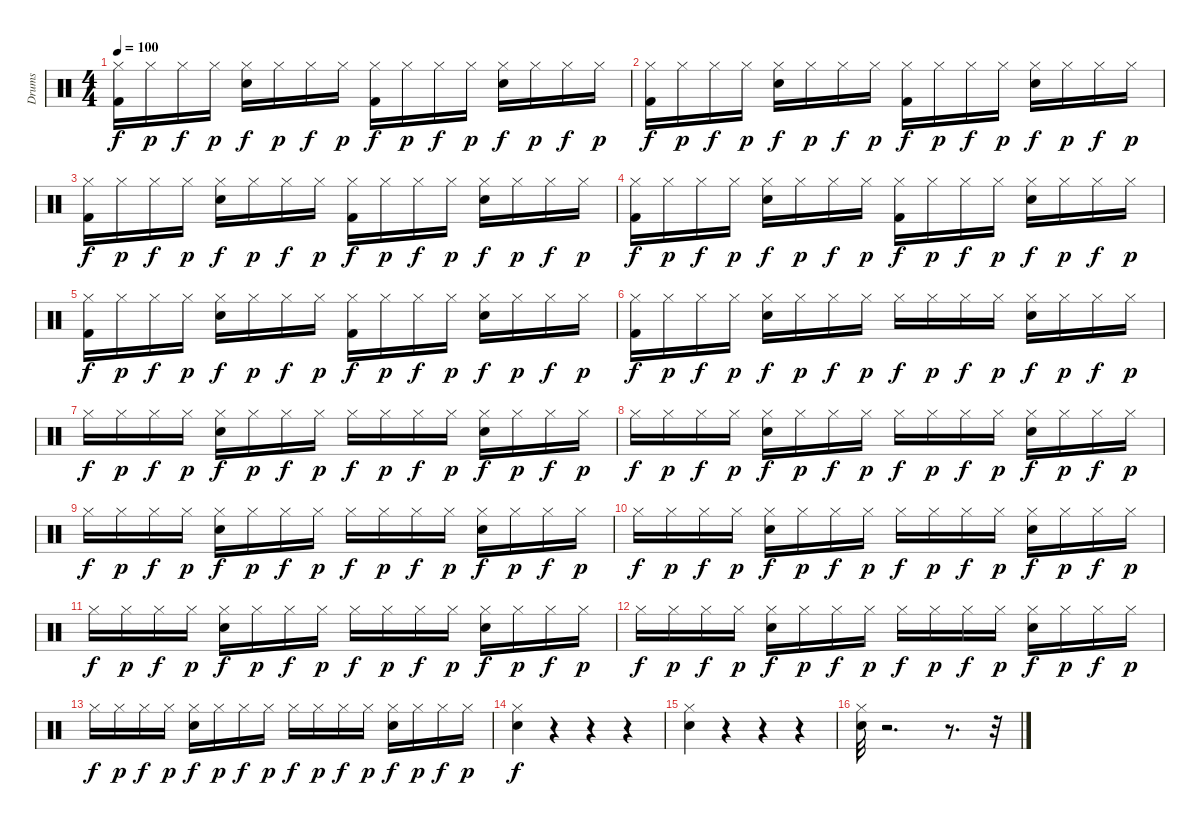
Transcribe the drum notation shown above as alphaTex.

\track ("Drums" "Drums") {instrument percussion}
\staff {score}
\articulation defaults
\ts (4 4)
\tempo 100
\clef neutral
\ks c
("Hi-Hat (closed)" "Kick (hit) 2").16{dy f} "Hi-Hat (closed)".16{dy p} "Hi-Hat (closed)".16{dy f} "Hi-Hat (closed)".16{dy p} ("Hi-Hat (closed)" "Electric Snare (hit)").16{dy f} "Hi-Hat (closed)".16{dy p} "Hi-Hat (closed)".16{dy f} "Hi-Hat (closed)".16{dy p} ("Hi-Hat (closed)" "Kick (hit) 2").16{dy f} "Hi-Hat (closed)".16{dy p} "Hi-Hat (closed)".16{dy f} "Hi-Hat (closed)".16{dy p} ("Hi-Hat (closed)" "Electric Snare (hit)").16{dy f} "Hi-Hat (closed)".16{dy p} "Hi-Hat (closed)".16{dy f} "Hi-Hat (closed)".16{dy p} |
("Hi-Hat (closed)" "Kick (hit) 2").16{dy f} "Hi-Hat (closed)".16{dy p} "Hi-Hat (closed)".16{dy f} "Hi-Hat (closed)".16{dy p} ("Hi-Hat (closed)" "Electric Snare (hit)").16{dy f} "Hi-Hat (closed)".16{dy p} "Hi-Hat (closed)".16{dy f} "Hi-Hat (closed)".16{dy p} ("Hi-Hat (closed)" "Kick (hit) 2").16{dy f} "Hi-Hat (closed)".16{dy p} "Hi-Hat (closed)".16{dy f} "Hi-Hat (closed)".16{dy p} ("Hi-Hat (closed)" "Electric Snare (hit)").16{dy f} "Hi-Hat (closed)".16{dy p} "Hi-Hat (closed)".16{dy f} "Hi-Hat (closed)".16{dy p} |
("Hi-Hat (closed)" "Kick (hit) 2").16{dy f} "Hi-Hat (closed)".16{dy p} "Hi-Hat (closed)".16{dy f} "Hi-Hat (closed)".16{dy p} ("Hi-Hat (closed)" "Electric Snare (hit)").16{dy f} "Hi-Hat (closed)".16{dy p} "Hi-Hat (closed)".16{dy f} "Hi-Hat (closed)".16{dy p} ("Hi-Hat (closed)" "Kick (hit) 2").16{dy f} "Hi-Hat (closed)".16{dy p} "Hi-Hat (closed)".16{dy f} "Hi-Hat (closed)".16{dy p} ("Hi-Hat (closed)" "Electric Snare (hit)").16{dy f} "Hi-Hat (closed)".16{dy p} "Hi-Hat (closed)".16{dy f} "Hi-Hat (closed)".16{dy p} |
("Hi-Hat (closed)" "Kick (hit) 2").16{dy f} "Hi-Hat (closed)".16{dy p} "Hi-Hat (closed)".16{dy f} "Hi-Hat (closed)".16{dy p} ("Hi-Hat (closed)" "Electric Snare (hit)").16{dy f} "Hi-Hat (closed)".16{dy p} "Hi-Hat (closed)".16{dy f} "Hi-Hat (closed)".16{dy p} ("Hi-Hat (closed)" "Kick (hit) 2").16{dy f} "Hi-Hat (closed)".16{dy p} "Hi-Hat (closed)".16{dy f} "Hi-Hat (closed)".16{dy p} ("Hi-Hat (closed)" "Electric Snare (hit)").16{dy f} "Hi-Hat (closed)".16{dy p} "Hi-Hat (closed)".16{dy f} "Hi-Hat (closed)".16{dy p} |
("Hi-Hat (closed)" "Kick (hit) 2").16{dy f} "Hi-Hat (closed)".16{dy p} "Hi-Hat (closed)".16{dy f} "Hi-Hat (closed)".16{dy p} ("Hi-Hat (closed)" "Electric Snare (hit)").16{dy f} "Hi-Hat (closed)".16{dy p} "Hi-Hat (closed)".16{dy f} "Hi-Hat (closed)".16{dy p} ("Hi-Hat (closed)" "Kick (hit) 2").16{dy f} "Hi-Hat (closed)".16{dy p} "Hi-Hat (closed)".16{dy f} "Hi-Hat (closed)".16{dy p} ("Hi-Hat (closed)" "Electric Snare (hit)").16{dy f} "Hi-Hat (closed)".16{dy p} "Hi-Hat (closed)".16{dy f} "Hi-Hat (closed)".16{dy p} |
("Hi-Hat (closed)" "Kick (hit) 2").16{dy f} "Hi-Hat (closed)".16{dy p} "Hi-Hat (closed)".16{dy f} "Hi-Hat (closed)".16{dy p} ("Hi-Hat (closed)" "Electric Snare (hit)").16{dy f} "Hi-Hat (closed)".16{dy p} "Hi-Hat (closed)".16{dy f} "Hi-Hat (closed)".16{dy p} "Hi-Hat (closed)".16{dy f} "Hi-Hat (closed)".16{dy p} "Hi-Hat (closed)".16{dy f} "Hi-Hat (closed)".16{dy p} ("Hi-Hat (closed)" "Electric Snare (hit)").16{dy f} "Hi-Hat (closed)".16{dy p} "Hi-Hat (closed)".16{dy f} "Hi-Hat (closed)".16{dy p} |
"Hi-Hat (closed)".16{dy f} "Hi-Hat (closed)".16{dy p} "Hi-Hat (closed)".16{dy f} "Hi-Hat (closed)".16{dy p} ("Hi-Hat (closed)" "Electric Snare (hit)").16{dy f} "Hi-Hat (closed)".16{dy p} "Hi-Hat (closed)".16{dy f} "Hi-Hat (closed)".16{dy p} "Hi-Hat (closed)".16{dy f} "Hi-Hat (closed)".16{dy p} "Hi-Hat (closed)".16{dy f} "Hi-Hat (closed)".16{dy p} ("Hi-Hat (closed)" "Electric Snare (hit)").16{dy f} "Hi-Hat (closed)".16{dy p} "Hi-Hat (closed)".16{dy f} "Hi-Hat (closed)".16{dy p} |
"Hi-Hat (closed)".16{dy f} "Hi-Hat (closed)".16{dy p} "Hi-Hat (closed)".16{dy f} "Hi-Hat (closed)".16{dy p} ("Hi-Hat (closed)" "Electric Snare (hit)").16{dy f} "Hi-Hat (closed)".16{dy p} "Hi-Hat (closed)".16{dy f} "Hi-Hat (closed)".16{dy p} "Hi-Hat (closed)".16{dy f} "Hi-Hat (closed)".16{dy p} "Hi-Hat (closed)".16{dy f} "Hi-Hat (closed)".16{dy p} ("Hi-Hat (closed)" "Electric Snare (hit)").16{dy f} "Hi-Hat (closed)".16{dy p} "Hi-Hat (closed)".16{dy f} "Hi-Hat (closed)".16{dy p} |
"Hi-Hat (closed)".16{dy f} "Hi-Hat (closed)".16{dy p} "Hi-Hat (closed)".16{dy f} "Hi-Hat (closed)".16{dy p} ("Hi-Hat (closed)" "Electric Snare (hit)").16{dy f} "Hi-Hat (closed)".16{dy p} "Hi-Hat (closed)".16{dy f} "Hi-Hat (closed)".16{dy p} "Hi-Hat (closed)".16{dy f} "Hi-Hat (closed)".16{dy p} "Hi-Hat (closed)".16{dy f} "Hi-Hat (closed)".16{dy p} ("Hi-Hat (closed)" "Electric Snare (hit)").16{dy f} "Hi-Hat (closed)".16{dy p} "Hi-Hat (closed)".16{dy f} "Hi-Hat (closed)".16{dy p} |
"Hi-Hat (closed)".16{dy f} "Hi-Hat (closed)".16{dy p} "Hi-Hat (closed)".16{dy f} "Hi-Hat (closed)".16{dy p} ("Hi-Hat (closed)" "Electric Snare (hit)").16{dy f} "Hi-Hat (closed)".16{dy p} "Hi-Hat (closed)".16{dy f} "Hi-Hat (closed)".16{dy p} "Hi-Hat (closed)".16{dy f} "Hi-Hat (closed)".16{dy p} "Hi-Hat (closed)".16{dy f} "Hi-Hat (closed)".16{dy p} ("Hi-Hat (closed)" "Electric Snare (hit)").16{dy f} "Hi-Hat (closed)".16{dy p} "Hi-Hat (closed)".16{dy f} "Hi-Hat (closed)".16{dy p} |
"Hi-Hat (closed)".16{dy f} "Hi-Hat (closed)".16{dy p} "Hi-Hat (closed)".16{dy f} "Hi-Hat (closed)".16{dy p} ("Hi-Hat (closed)" "Electric Snare (hit)").16{dy f} "Hi-Hat (closed)".16{dy p} "Hi-Hat (closed)".16{dy f} "Hi-Hat (closed)".16{dy p} "Hi-Hat (closed)".16{dy f} "Hi-Hat (closed)".16{dy p} "Hi-Hat (closed)".16{dy f} "Hi-Hat (closed)".16{dy p} ("Hi-Hat (closed)" "Electric Snare (hit)").16{dy f} "Hi-Hat (closed)".16{dy p} "Hi-Hat (closed)".16{dy f} "Hi-Hat (closed)".16{dy p} |
"Hi-Hat (closed)".16{dy f} "Hi-Hat (closed)".16{dy p} "Hi-Hat (closed)".16{dy f} "Hi-Hat (closed)".16{dy p} ("Hi-Hat (closed)" "Electric Snare (hit)").16{dy f} "Hi-Hat (closed)".16{dy p} "Hi-Hat (closed)".16{dy f} "Hi-Hat (closed)".16{dy p} "Hi-Hat (closed)".16{dy f} "Hi-Hat (closed)".16{dy p} "Hi-Hat (closed)".16{dy f} "Hi-Hat (closed)".16{dy p} ("Hi-Hat (closed)" "Electric Snare (hit)").16{dy f} "Hi-Hat (closed)".16{dy p} "Hi-Hat (closed)".16{dy f} "Hi-Hat (closed)".16{dy p} |
"Hi-Hat (closed)".16{dy f} "Hi-Hat (closed)".16{dy p} "Hi-Hat (closed)".16{dy f} "Hi-Hat (closed)".16{dy p} ("Hi-Hat (closed)" "Electric Snare (hit)").16{dy f} "Hi-Hat (closed)".16{dy p} "Hi-Hat (closed)".16{dy f} "Hi-Hat (closed)".16{dy p} "Hi-Hat (closed)".16{dy f} "Hi-Hat (closed)".16{dy p} "Hi-Hat (closed)".16{dy f} "Hi-Hat (closed)".16{dy p} ("Hi-Hat (closed)" "Electric Snare (hit)").16{dy f} "Hi-Hat (closed)".16{dy p} "Hi-Hat (closed)".16{dy f} "Hi-Hat (closed)".16{dy p} |
("Hi-Hat (closed)" "Electric Snare (hit)").4{dy f} r.4 r.4 r.4 |
("Hi-Hat (closed)" "Electric Snare (hit)").4 r.4 r.4 r.4 |
("Electric Snare (hit)" "Hi-Hat (closed)").32 r.2{d} r.8{d} r.32
